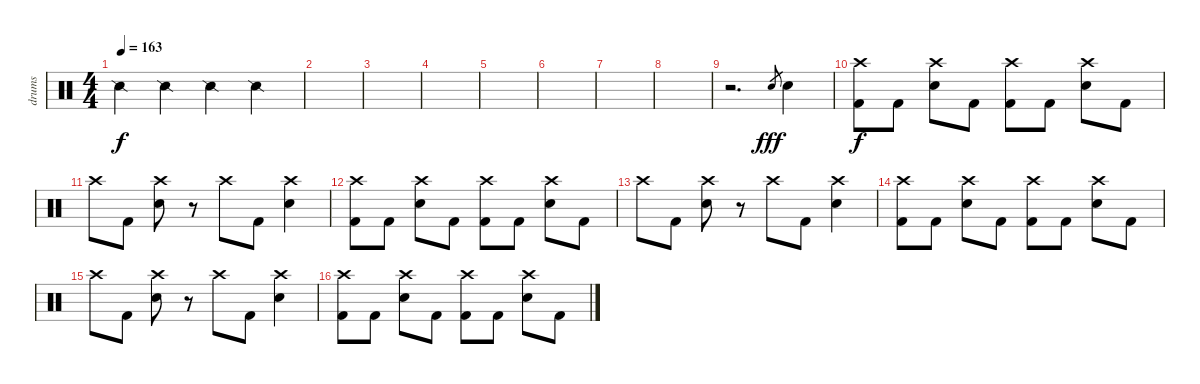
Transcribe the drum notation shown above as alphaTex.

\track ("drums" "drums") {instrument percussion}
\staff {score}
\articulation defaults
\ts (4 4)
\tempo 163
\clef neutral
\ks c "Snare (side stick) 2".4{dy f} "Snare (side stick) 2".4 "Snare (side stick) 2".4 "Snare (side stick) 2".4
|
|
|
|
|
|
|
|
r.2{d} "Electric Snare (hit)".8{gr dy fff} "Electric Snare (hit)".4 |
("Crash high (hit)" "Kick (hit) 2").8{dy f} "Kick (hit) 2".8 ("Crash high (hit)" "Electric Snare (hit)").8 "Kick (hit) 2".8 ("Crash high (hit)" "Kick (hit) 2").8 "Kick (hit) 2".8 ("Crash high (hit)" "Electric Snare (hit)").8 "Kick (hit) 2".8 |
"Crash high (hit)".8 "Kick (hit) 2".8 ("Crash high (hit)" "Electric Snare (hit)").8 r.8 "Crash high (hit)".8 "Kick (hit) 2".8 ("Crash high (hit)" "Electric Snare (hit)").4 |
("Crash high (hit)" "Kick (hit) 2").8 "Kick (hit) 2".8 ("Crash high (hit)" "Electric Snare (hit)").8 "Kick (hit) 2".8 ("Crash high (hit)" "Kick (hit) 2").8 "Kick (hit) 2".8 ("Crash high (hit)" "Electric Snare (hit)").8 "Kick (hit) 2".8 |
"Crash high (hit)".8 "Kick (hit) 2".8 ("Crash high (hit)" "Electric Snare (hit)").8 r.8 "Crash high (hit)".8 "Kick (hit) 2".8 ("Crash high (hit)" "Electric Snare (hit)").4 |
("Crash high (hit)" "Kick (hit) 2").8 "Kick (hit) 2".8 ("Crash high (hit)" "Electric Snare (hit)").8 "Kick (hit) 2".8 ("Crash high (hit)" "Kick (hit) 2").8 "Kick (hit) 2".8 ("Crash high (hit)" "Electric Snare (hit)").8 "Kick (hit) 2".8 |
"Crash high (hit)".8 "Kick (hit) 2".8 ("Crash high (hit)" "Electric Snare (hit)").8 r.8 "Crash high (hit)".8 "Kick (hit) 2".8 ("Crash high (hit)" "Electric Snare (hit)").4 |
("Crash high (hit)" "Kick (hit) 2").8 "Kick (hit) 2".8 ("Crash high (hit)" "Electric Snare (hit)").8 "Kick (hit) 2".8 ("Crash high (hit)" "Kick (hit) 2").8 "Kick (hit) 2".8 ("Crash high (hit)" "Electric Snare (hit)").8 "Kick (hit) 2".8
